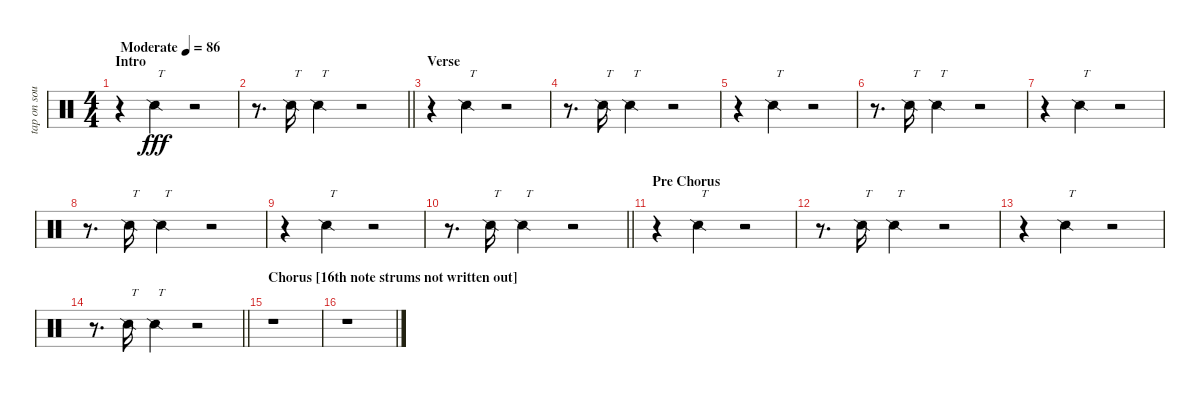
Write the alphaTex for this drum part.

\track ("tap on soundboard" "tap on sou") {instrument percussion}
\staff {score}
\articulation defaults
\ts (4 4)
\section ("" "Intro")
\tempo (86 "Moderate")
\clef neutral
\ks c
r.4{dy fff} "Snare (side stick) 2".4{txt "T"} r.2 |
\barLineRight lightlight
r.8{d} "Snare (side stick) 2".16{txt "T"} "Snare (side stick) 2".4{txt "T"} r.2 |
\section ("" "Verse")
r.4 "Snare (side stick) 2".4{txt "T"} r.2 |
r.8{d} "Snare (side stick) 2".16{txt "T"} "Snare (side stick) 2".4{txt "T"} r.2 |
r.4 "Snare (side stick) 2".4{txt "T"} r.2 |
r.8{d} "Snare (side stick) 2".16{txt "T"} "Snare (side stick) 2".4{txt "T"} r.2 |
r.4 "Snare (side stick) 2".4{txt "T"} r.2 |
r.8{d} "Snare (side stick) 2".16{txt "T"} "Snare (side stick) 2".4{txt "T"} r.2 |
r.4 "Snare (side stick) 2".4{txt "T"} r.2 |
\barLineRight lightlight
r.8{d} "Snare (side stick) 2".16{txt "T"} "Snare (side stick) 2".4{txt "T"} r.2 |
\section ("" "Pre Chorus")
r.4 "Snare (side stick) 2".4{txt "T"} r.2 |
r.8{d} "Snare (side stick) 2".16{txt "T"} "Snare (side stick) 2".4{txt "T"} r.2 |
r.4 "Snare (side stick) 2".4{txt "T"} r.2 |
\barLineRight lightlight
r.8{d} "Snare (side stick) 2".16{txt "T"} "Snare (side stick) 2".4{txt "T"} r.2 |
\section ("" "Chorus [16th note strums not written out]")
r.1 |
r.1
